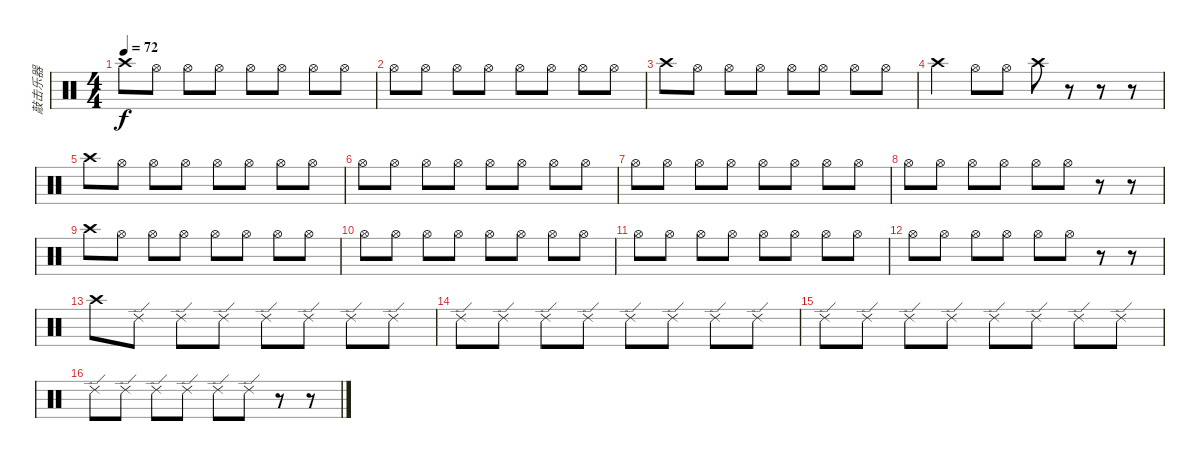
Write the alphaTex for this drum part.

\track ("敲击乐器" "敲击乐器") {instrument percussion}
\staff {score}
\articulation defaults
\ts (4 4)
\tempo 72
\clef neutral
\ks c "Crash high (hit)".8{dy f} "Hi-Hat (open)".8 "Hi-Hat (open)".8 "Hi-Hat (open)".8 "Hi-Hat (open)".8 "Hi-Hat (open)".8 "Hi-Hat (open)".8 "Hi-Hat (open)".8
|
"Hi-Hat (open)".8 "Hi-Hat (open)".8 "Hi-Hat (open)".8 "Hi-Hat (open)".8 "Hi-Hat (open)".8 "Hi-Hat (open)".8 "Hi-Hat (open)".8 "Hi-Hat (open)".8 |
"Crash high (hit)".8 "Hi-Hat (open)".8 "Hi-Hat (open)".8 "Hi-Hat (open)".8 "Hi-Hat (open)".8 "Hi-Hat (open)".8 "Hi-Hat (open)".8 "Hi-Hat (open)".8 |
"Crash high (hit)".4 "Hi-Hat (open)".8 "Hi-Hat (open)".8 "Crash high (hit)".8 r.8 r.8 r.8 |
"Crash high (hit)".8 "Hi-Hat (open)".8 "Hi-Hat (open)".8 "Hi-Hat (open)".8 "Hi-Hat (open)".8 "Hi-Hat (open)".8 "Hi-Hat (open)".8 "Hi-Hat (open)".8 |
"Hi-Hat (open)".8 "Hi-Hat (open)".8 "Hi-Hat (open)".8 "Hi-Hat (open)".8 "Hi-Hat (open)".8 "Hi-Hat (open)".8 "Hi-Hat (open)".8 "Hi-Hat (open)".8 |
"Hi-Hat (open)".8 "Hi-Hat (open)".8 "Hi-Hat (open)".8 "Hi-Hat (open)".8 "Hi-Hat (open)".8 "Hi-Hat (open)".8 "Hi-Hat (open)".8 "Hi-Hat (open)".8 |
"Hi-Hat (open)".8 "Hi-Hat (open)".8 "Hi-Hat (open)".8 "Hi-Hat (open)".8 "Hi-Hat (open)".8 "Hi-Hat (open)".8 r.8 r.8 |
"Crash high (hit)".8 "Hi-Hat (open)".8 "Hi-Hat (open)".8 "Hi-Hat (open)".8 "Hi-Hat (open)".8 "Hi-Hat (open)".8 "Hi-Hat (open)".8 "Hi-Hat (open)".8 |
"Hi-Hat (open)".8 "Hi-Hat (open)".8 "Hi-Hat (open)".8 "Hi-Hat (open)".8 "Hi-Hat (open)".8 "Hi-Hat (open)".8 "Hi-Hat (open)".8 "Hi-Hat (open)".8 |
"Hi-Hat (open)".8 "Hi-Hat (open)".8 "Hi-Hat (open)".8 "Hi-Hat (open)".8 "Hi-Hat (open)".8 "Hi-Hat (open)".8 "Hi-Hat (open)".8 "Hi-Hat (open)".8 |
"Hi-Hat (open)".8 "Hi-Hat (open)".8 "Hi-Hat (open)".8 "Hi-Hat (open)".8 "Hi-Hat (open)".8 "Hi-Hat (open)".8 r.8 r.8 |
"Crash high (hit)".8 "Ride (edge) 2".8 "Ride (edge) 2".8 "Ride (edge) 2".8 "Ride (edge) 2".8 "Ride (edge) 2".8 "Ride (edge) 2".8 "Ride (edge) 2".8 |
"Ride (edge) 2".8 "Ride (edge) 2".8 "Ride (edge) 2".8 "Ride (edge) 2".8 "Ride (edge) 2".8 "Ride (edge) 2".8 "Ride (edge) 2".8 "Ride (edge) 2".8 |
"Ride (edge) 2".8 "Ride (edge) 2".8 "Ride (edge) 2".8 "Ride (edge) 2".8 "Ride (edge) 2".8 "Ride (edge) 2".8 "Ride (edge) 2".8 "Ride (edge) 2".8 |
"Ride (edge) 2".8 "Ride (edge) 2".8 "Ride (edge) 2".8 "Ride (edge) 2".8 "Ride (edge) 2".8 "Ride (edge) 2".8 r.8 r.8
